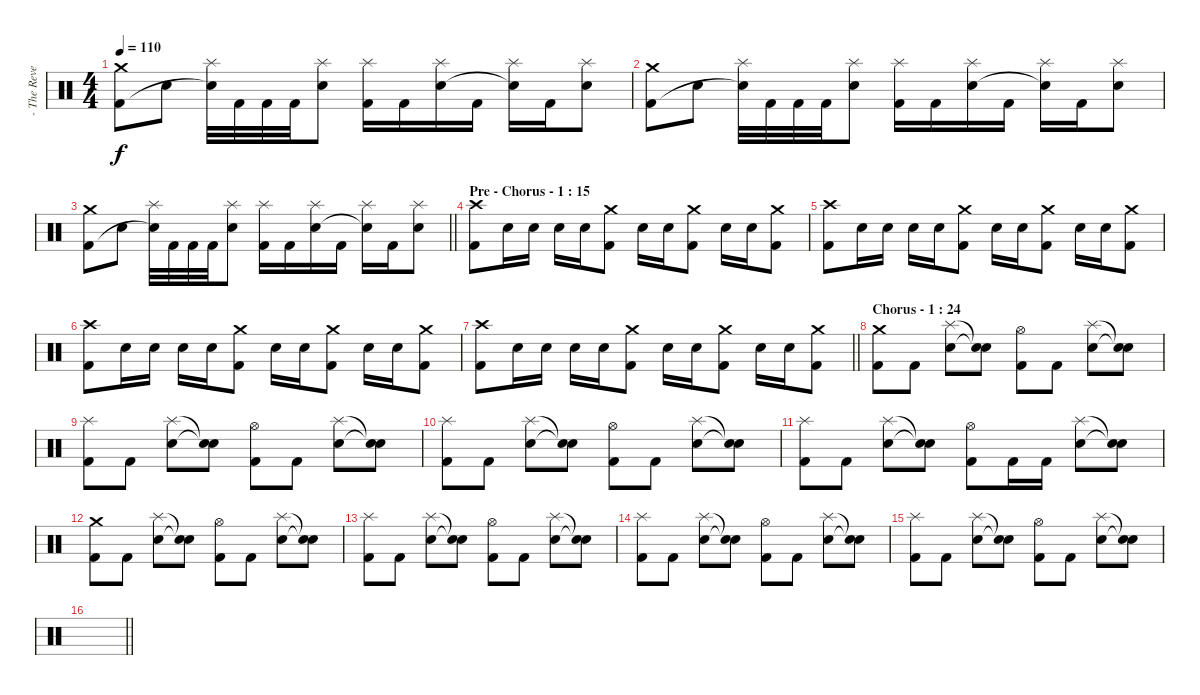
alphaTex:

\track ("- The Reverend - Drums" "- The Reve") {instrument percussion}
\staff {score}
\articulation defaults
\ts (4 4)
\tempo 110
\clef neutral
\ks c
("Crash medium (hit)" "Kick (hit) 2").8{dy f} "Snare (hit) 2".8 ("Splash (hit)" "Snare (hit)"{t}).32 "Kick (hit) 2".32 "Kick (hit) 2".32 "Kick (hit) 2".32 ("Splash (hit)" "Snare (hit) 2").8 ("Splash (hit)" "Kick (hit) 2").16 "Kick (hit) 2".16 ("Splash (hit)" "Snare (hit) 2").16 "Kick (hit) 2".16 ("Splash (hit)" "Snare (hit)"{t}).16 "Kick (hit) 2".16 ("Splash (hit)" "Snare (hit) 2").8 |
("Crash medium (hit)" "Kick (hit) 2").8 "Snare (hit) 2".8 ("Splash (hit)" "Snare (hit)"{t}).32 "Kick (hit) 2".32 "Kick (hit) 2".32 "Kick (hit) 2".32 ("Splash (hit)" "Snare (hit) 2").8 ("Splash (hit)" "Kick (hit) 2").16 "Kick (hit) 2".16 ("Splash (hit)" "Snare (hit) 2").16 "Kick (hit) 2".16 ("Splash (hit)" "Snare (hit)"{t}).16 "Kick (hit) 2".16 ("Splash (hit)" "Snare (hit) 2").8 |
\barLineRight lightlight
("Crash medium (hit)" "Kick (hit) 2").8 "Snare (hit) 2".8 ("Splash (hit)" "Snare (hit)"{t}).32 "Kick (hit) 2".32 "Kick (hit) 2".32 "Kick (hit) 2".32 ("Splash (hit)" "Snare (hit) 2").8 ("Splash (hit)" "Kick (hit) 2").16 "Kick (hit) 2".16 ("Splash (hit)" "Snare (hit) 2").16 "Kick (hit) 2".16 ("Splash (hit)" "Snare (hit)"{t}).16 "Kick (hit) 2".16 ("Splash (hit)" "Snare (hit) 2").8 |
\section ("" "Pre - Chorus - 1 : 15")
("Crash high (hit)" "Kick (hit) 2").8 "Electric Snare (hit)".16 "Electric Snare (hit)".16 "Electric Snare (hit)".16 "Electric Snare (hit)".16 ("Crash medium (hit)" "Kick (hit) 2").8 "Electric Snare (hit)".16 "Electric Snare (hit)".16 ("Crash medium (hit)" "Kick (hit) 2").8 "Electric Snare (hit)".16 "Electric Snare (hit)".16 ("Crash medium (hit)" "Kick (hit) 2").8 |
("Crash high (hit)" "Kick (hit) 2").8 "Electric Snare (hit)".16 "Electric Snare (hit)".16 "Electric Snare (hit)".16 "Electric Snare (hit)".16 ("Crash medium (hit)" "Kick (hit) 2").8 "Electric Snare (hit)".16 "Electric Snare (hit)".16 ("Crash medium (hit)" "Kick (hit) 2").8 "Electric Snare (hit)".16 "Electric Snare (hit)".16 ("Crash medium (hit)" "Kick (hit) 2").8 |
("Crash high (hit)" "Kick (hit) 2").8 "Electric Snare (hit)".16 "Electric Snare (hit)".16 "Electric Snare (hit)".16 "Electric Snare (hit)".16 ("Crash medium (hit)" "Kick (hit) 2").8 "Electric Snare (hit)".16 "Electric Snare (hit)".16 ("Crash medium (hit)" "Kick (hit) 2").8 "Electric Snare (hit)".16 "Electric Snare (hit)".16 ("Crash medium (hit)" "Kick (hit) 2").8 |
\barLineRight lightlight
("Crash high (hit)" "Kick (hit) 2").8 "Electric Snare (hit)".16 "Electric Snare (hit)".16 "Electric Snare (hit)".16 "Electric Snare (hit)".16 ("Crash medium (hit)" "Kick (hit) 2").8 "Electric Snare (hit)".16 "Electric Snare (hit)".16 ("Crash medium (hit)" "Kick (hit) 2").8 "Electric Snare (hit)".16 "Electric Snare (hit)".16 ("Crash medium (hit)" "Kick (hit) 2").8 |
\section ("" "Chorus - 1 : 24")
("Crash medium (hit)" "Kick (hit) 2").8 "Kick (hit) 2".8 ("Splash (hit)" "Snare (hit) 2").8 ("Snare (hit)"{t} "Snare (hit)"{t}).8 ("Hi-Hat (open)" "Kick (hit) 2").8 "Kick (hit) 2".8 ("Splash (hit)" "Snare (hit) 2").8 ("Snare (hit)"{t} "Snare (hit)"{t}).8 |
("Splash (hit)" "Kick (hit) 2").8 "Kick (hit) 2".8 ("Splash (hit)" "Snare (hit) 2").8 ("Snare (hit)"{t} "Snare (hit)"{t}).8 ("Hi-Hat (open)" "Kick (hit) 2").8 "Kick (hit) 2".8 ("Splash (hit)" "Snare (hit) 2").8 ("Snare (hit)"{t} "Snare (hit)"{t}).8 |
("Splash (hit)" "Kick (hit) 2").8 "Kick (hit) 2".8 ("Splash (hit)" "Snare (hit) 2").8 ("Snare (hit)"{t} "Snare (hit)"{t}).8 ("Hi-Hat (open)" "Kick (hit) 2").8 "Kick (hit) 2".8 ("Splash (hit)" "Snare (hit) 2").8 ("Snare (hit)"{t} "Snare (hit)"{t}).8 |
("Splash (hit)" "Kick (hit) 2").8 "Kick (hit) 2".8 ("Splash (hit)" "Snare (hit) 2").8 ("Snare (hit)"{t} "Snare (hit)"{t}).8 ("Hi-Hat (open)" "Kick (hit) 2").8 "Kick (hit) 2".16 "Kick (hit) 2".16 ("Splash (hit)" "Snare (hit) 2").8 ("Snare (hit)"{t} "Snare (hit)"{t}).8 |
("Crash medium (hit)" "Kick (hit) 2").8 "Kick (hit) 2".8 ("Splash (hit)" "Snare (hit) 2").8 ("Snare (hit)"{t} "Snare (hit)"{t}).8 ("Hi-Hat (open)" "Kick (hit) 2").8 "Kick (hit) 2".8 ("Splash (hit)" "Snare (hit) 2").8 ("Snare (hit)"{t} "Snare (hit)"{t}).8 |
("Splash (hit)" "Kick (hit) 2").8 "Kick (hit) 2".8 ("Splash (hit)" "Snare (hit) 2").8 ("Snare (hit)"{t} "Snare (hit)"{t}).8 ("Hi-Hat (open)" "Kick (hit) 2").8 "Kick (hit) 2".8 ("Splash (hit)" "Snare (hit) 2").8 ("Snare (hit)"{t} "Snare (hit)"{t}).8 |
("Splash (hit)" "Kick (hit) 2").8 "Kick (hit) 2".8 ("Splash (hit)" "Snare (hit) 2").8 ("Snare (hit)"{t} "Snare (hit)"{t}).8 ("Hi-Hat (open)" "Kick (hit) 2").8 "Kick (hit) 2".8 ("Splash (hit)" "Snare (hit) 2").8 ("Snare (hit)"{t} "Snare (hit)"{t}).8 |
("Splash (hit)" "Kick (hit) 2").8 "Kick (hit) 2".8 ("Splash (hit)" "Snare (hit) 2").8 ("Snare (hit)"{t} "Snare (hit)"{t}).8 ("Hi-Hat (open)" "Kick (hit) 2").8 "Kick (hit) 2".8 ("Splash (hit)" "Snare (hit) 2").8 ("Snare (hit)"{t} "Snare (hit)"{t}).8 |
\barLineRight lightlight
